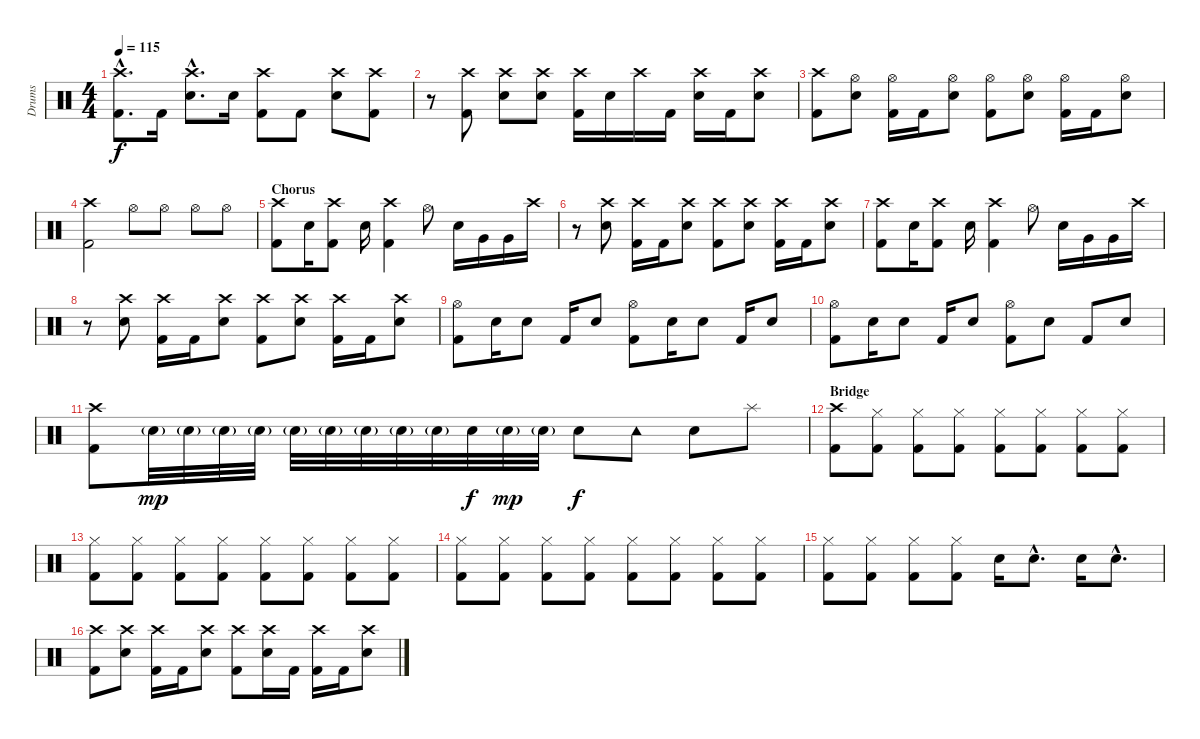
\track ("Drums" "Drums") {instrument percussion}
\staff {score}
\articulation defaults
\ts (4 4)
\tempo 115
\clef neutral
\ks c
("Crash high (hit)"{hac} "Kick (hit) 2"{hac}).8{d dy f} "Kick (hit) 2".16 ("Crash high (hit)"{hac} "Electric Snare (hit)"{hac}).8{d} "Electric Snare (hit)".16 ("Crash high (hit)" "Kick (hit) 2").8 "Kick (hit) 2".8 ("Crash high (hit)" "Electric Snare (hit)").8 ("Crash high (hit)" "Kick (hit) 2").8 |
r.8 ("Crash high (hit)" "Kick (hit) 2").8 ("Crash high (hit)" "Electric Snare (hit)").8 ("Crash high (hit)" "Electric Snare (hit)").8 ("Crash high (hit)" "Kick (hit) 2").16 "Electric Snare (hit)".16 "Crash high (hit)".16 "Kick (hit) 2".16 ("Crash high (hit)" "Electric Snare (hit)").16 "Kick (hit) 2".16 ("Crash high (hit)" "Electric Snare (hit)").8 |
("Crash high (hit)" "Kick (hit) 2").8 ("Hi-Hat (open)" "Electric Snare (hit)").8 ("Hi-Hat (open)" "Kick (hit) 2").16 "Kick (hit) 2".16 ("Hi-Hat (open)" "Electric Snare (hit)").8 ("Hi-Hat (open)" "Kick (hit) 2").8 ("Hi-Hat (open)" "Electric Snare (hit)").8 ("Hi-Hat (open)" "Kick (hit) 2").16 "Kick (hit) 2".16 ("Hi-Hat (open)" "Electric Snare (hit)").8 |
("Crash high (hit)" "Kick (hit) 2").2 "Hi-Hat (open)".8 "Hi-Hat (open)".8 "Hi-Hat (open)".8 "Hi-Hat (open)".8 |
\section ("" "Chorus")
("Crash high (hit)" "Kick (hit) 2").8 "Electric Snare (hit)".16 ("Crash high (hit)" "Kick (hit) 2").8 "Electric Snare (hit)".16 ("Crash high (hit)" "Kick (hit) 2").4 "Hi-Hat (open)".8 "Electric Snare (hit)".16 "Very Low Tom (hit)".16 "Very Low Tom (hit)".16 "Crash high (hit)".16 |
r.8 ("Crash high (hit)" "Electric Snare (hit)").8 ("Crash high (hit)" "Kick (hit) 2").16 "Kick (hit) 2".16 ("Crash high (hit)" "Electric Snare (hit)").8 ("Crash high (hit)" "Kick (hit) 2").8 ("Crash high (hit)" "Electric Snare (hit)").8 ("Crash high (hit)" "Kick (hit) 2").16 "Kick (hit) 2".16 ("Crash high (hit)" "Electric Snare (hit)").8 |
("Crash high (hit)" "Kick (hit) 2").8 "Electric Snare (hit)".16 ("Crash high (hit)" "Kick (hit) 2").8 "Electric Snare (hit)".16 ("Crash high (hit)" "Kick (hit) 2").4 "Hi-Hat (open)".8 "Electric Snare (hit)".16 "Very Low Tom (hit)".16 "Very Low Tom (hit)".16 "Crash high (hit)".16 |
r.8 ("Crash high (hit)" "Electric Snare (hit)").8 ("Crash high (hit)" "Kick (hit) 2").16 "Kick (hit) 2".16 ("Crash high (hit)" "Electric Snare (hit)").8 ("Crash high (hit)" "Kick (hit) 2").8 ("Crash high (hit)" "Electric Snare (hit)").8 ("Crash high (hit)" "Kick (hit) 2").16 "Kick (hit) 2".16 ("Crash high (hit)" "Electric Snare (hit)").8 |
("Hi-Hat (open)" "Kick (hit) 2").8 "Electric Snare (hit)".16 "Electric Snare (hit)".8 "Kick (hit) 2".16 "Electric Snare (hit)".8 ("Hi-Hat (open)" "Kick (hit) 2").8 "Electric Snare (hit)".16 "Electric Snare (hit)".8 "Kick (hit) 2".16 "Electric Snare (hit)".8 |
("Hi-Hat (open)" "Kick (hit) 2").8 "Electric Snare (hit)".16 "Electric Snare (hit)".8 "Kick (hit) 2".16 "Electric Snare (hit)".8 ("Hi-Hat (open)" "Kick (hit) 2").8 "Electric Snare (hit)".8 "Kick (hit) 2".8 "Electric Snare (hit)".8 |
("Crash high (hit)" "Kick (hit) 2").8 "Electric Snare (hit)"{g}.32{dy mp} "Electric Snare (hit)"{g}.32 "Electric Snare (hit)"{g}.32 "Electric Snare (hit)"{g}.32 "Electric Snare (hit)"{g}.32 "Electric Snare (hit)"{g}.32 "Electric Snare (hit)"{g}.32 "Electric Snare (hit)"{g}.32 "Electric Snare (hit)"{g}.32 "Electric Snare (hit)".32{dy f} "Electric Snare (hit)"{g}.32{dy mp} "Electric Snare (hit)"{g}.32 "Electric Snare (hit)".8{dy f} "Tambourine (hit)".8 "Electric Snare (hit)".8 "Splash (hit)".8 |
\section ("" "Bridge")
("Crash high (hit)" "Kick (hit) 2").8 ("Hi-Hat (closed)" "Kick (hit) 2").8 ("Hi-Hat (closed)" "Kick (hit) 2").8 ("Hi-Hat (closed)" "Kick (hit) 2").8 ("Hi-Hat (closed)" "Kick (hit) 2").8 ("Hi-Hat (closed)" "Kick (hit) 2").8 ("Hi-Hat (closed)" "Kick (hit) 2").8 ("Hi-Hat (closed)" "Kick (hit) 2").8 |
("Hi-Hat (closed)" "Kick (hit) 2").8 ("Hi-Hat (closed)" "Kick (hit) 2").8 ("Hi-Hat (closed)" "Kick (hit) 2").8 ("Hi-Hat (closed)" "Kick (hit) 2").8 ("Hi-Hat (closed)" "Kick (hit) 2").8 ("Hi-Hat (closed)" "Kick (hit) 2").8 ("Hi-Hat (closed)" "Kick (hit) 2").8 ("Hi-Hat (closed)" "Kick (hit) 2").8 |
("Hi-Hat (closed)" "Kick (hit) 2").8 ("Hi-Hat (closed)" "Kick (hit) 2").8 ("Hi-Hat (closed)" "Kick (hit) 2").8 ("Hi-Hat (closed)" "Kick (hit) 2").8 ("Hi-Hat (closed)" "Kick (hit) 2").8 ("Hi-Hat (closed)" "Kick (hit) 2").8 ("Hi-Hat (closed)" "Kick (hit) 2").8 ("Hi-Hat (closed)" "Kick (hit) 2").8 |
("Hi-Hat (closed)" "Kick (hit) 2").8 ("Hi-Hat (closed)" "Kick (hit) 2").8 ("Hi-Hat (closed)" "Kick (hit) 2").8 ("Hi-Hat (closed)" "Kick (hit) 2").8 "Electric Snare (hit)".16 "Electric Snare (hit)"{hac}.8{d} "Electric Snare (hit)".16 "Electric Snare (hit)"{hac}.8{d} |
("Crash high (hit)" "Kick (hit) 2").8 ("Crash high (hit)" "Electric Snare (hit)").8 ("Crash high (hit)" "Kick (hit) 2").16 "Kick (hit) 2".16 ("Crash high (hit)" "Electric Snare (hit)").8 ("Crash high (hit)" "Kick (hit) 2").8 ("Crash high (hit)" "Electric Snare (hit)").16 "Kick (hit) 2".16 ("Crash high (hit)" "Kick (hit) 2").16 "Kick (hit) 2".16 ("Crash high (hit)" "Electric Snare (hit)").8
